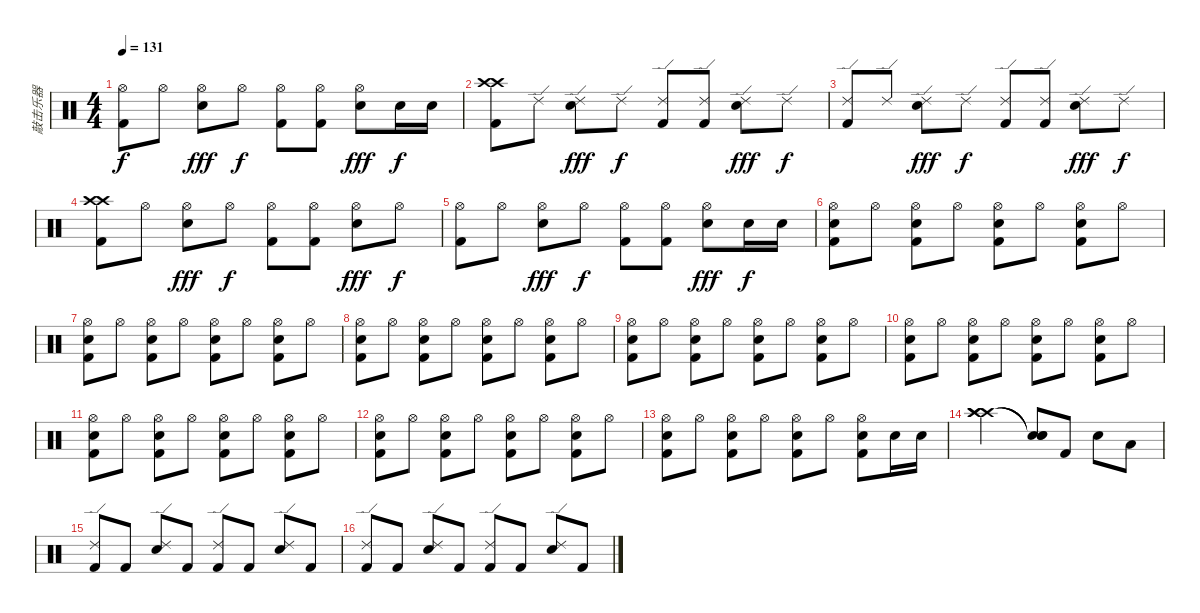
\track ("敲击乐器" "敲击乐器") {instrument percussion}
\staff {score}
\articulation defaults
\ts (4 4)
\tempo 131
\clef neutral
\ks c
("Hi-Hat (open)" "Kick (hit) 2").8{dy f} "Hi-Hat (open)".8 ("Hi-Hat (open)" "Electric Snare (hit)").8{dy fff} "Hi-Hat (open)".8{dy f} ("Hi-Hat (open)" "Kick (hit) 2").8 ("Hi-Hat (open)" "Kick (hit) 2").8 ("Hi-Hat (open)" "Electric Snare (hit)").8{dy fff} "Electric Snare (hit)".16{dy f} "Electric Snare (hit)".16 |
("Crash high (hit)" "Kick (hit) 2" "Crash high (hit)").8 "Ride (edge) 2".8 ("Ride (edge) 2" "Electric Snare (hit)").8{dy fff} "Ride (edge) 2".8{dy f} ("Ride (edge) 2" "Kick (hit) 2").8 ("Ride (edge) 2" "Kick (hit) 2").8 ("Ride (edge) 2" "Electric Snare (hit)").8{dy fff} "Ride (edge) 2".8{dy f} |
("Ride (edge) 2" "Kick (hit) 2").8 "Ride (edge) 2".8 ("Ride (edge) 2" "Electric Snare (hit)").8{dy fff} "Ride (edge) 2".8{dy f} ("Ride (edge) 2" "Kick (hit) 2").8 ("Ride (edge) 2" "Kick (hit) 2").8 ("Ride (edge) 2" "Electric Snare (hit)").8{dy fff} "Ride (edge) 2".8{dy f} |
("Crash high (hit)" "Kick (hit) 2" "Crash high (hit)").8 "Hi-Hat (open)".8 ("Hi-Hat (open)" "Electric Snare (hit)").8{dy fff} "Hi-Hat (open)".8{dy f} ("Hi-Hat (open)" "Kick (hit) 2").8 ("Hi-Hat (open)" "Kick (hit) 2").8 ("Hi-Hat (open)" "Electric Snare (hit)").8{dy fff} "Hi-Hat (open)".8{dy f} |
("Hi-Hat (open)" "Kick (hit) 2").8 "Hi-Hat (open)".8 ("Hi-Hat (open)" "Electric Snare (hit)").8{dy fff} "Hi-Hat (open)".8{dy f} ("Hi-Hat (open)" "Kick (hit) 2").8 ("Hi-Hat (open)" "Kick (hit) 2").8 ("Hi-Hat (open)" "Electric Snare (hit)").8{dy fff} "Electric Snare (hit)".16{dy f} "Electric Snare (hit)".16 |
("Hi-Hat (open)" "Electric Snare (hit)" "Kick (hit) 2").8 "Hi-Hat (open)".8 ("Hi-Hat (open)" "Electric Snare (hit)" "Kick (hit) 2").8 "Hi-Hat (open)".8 ("Hi-Hat (open)" "Electric Snare (hit)" "Kick (hit) 2").8 "Hi-Hat (open)".8 ("Hi-Hat (open)" "Electric Snare (hit)" "Kick (hit) 2").8 "Hi-Hat (open)".8 |
("Hi-Hat (open)" "Electric Snare (hit)" "Kick (hit) 2").8 "Hi-Hat (open)".8 ("Hi-Hat (open)" "Electric Snare (hit)" "Kick (hit) 2").8 "Hi-Hat (open)".8 ("Hi-Hat (open)" "Electric Snare (hit)" "Kick (hit) 2").8 "Hi-Hat (open)".8 ("Hi-Hat (open)" "Electric Snare (hit)" "Kick (hit) 2").8 "Hi-Hat (open)".8 |
("Hi-Hat (open)" "Electric Snare (hit)" "Kick (hit) 2").8 "Hi-Hat (open)".8 ("Hi-Hat (open)" "Electric Snare (hit)" "Kick (hit) 2").8 "Hi-Hat (open)".8 ("Hi-Hat (open)" "Electric Snare (hit)" "Kick (hit) 2").8 "Hi-Hat (open)".8 ("Hi-Hat (open)" "Electric Snare (hit)" "Kick (hit) 2").8 "Hi-Hat (open)".8 |
("Hi-Hat (open)" "Electric Snare (hit)" "Kick (hit) 2").8 "Hi-Hat (open)".8 ("Hi-Hat (open)" "Electric Snare (hit)" "Kick (hit) 2").8 "Hi-Hat (open)".8 ("Hi-Hat (open)" "Electric Snare (hit)" "Kick (hit) 2").8 "Hi-Hat (open)".8 ("Hi-Hat (open)" "Electric Snare (hit)" "Kick (hit) 2").8 "Hi-Hat (open)".8 |
("Hi-Hat (open)" "Electric Snare (hit)" "Kick (hit) 2").8 "Hi-Hat (open)".8 ("Hi-Hat (open)" "Electric Snare (hit)" "Kick (hit) 2").8 "Hi-Hat (open)".8 ("Hi-Hat (open)" "Electric Snare (hit)" "Kick (hit) 2").8 "Hi-Hat (open)".8 ("Hi-Hat (open)" "Electric Snare (hit)" "Kick (hit) 2").8 "Hi-Hat (open)".8 |
("Hi-Hat (open)" "Electric Snare (hit)" "Kick (hit) 2").8 "Hi-Hat (open)".8 ("Hi-Hat (open)" "Electric Snare (hit)" "Kick (hit) 2").8 "Hi-Hat (open)".8 ("Hi-Hat (open)" "Electric Snare (hit)" "Kick (hit) 2").8 "Hi-Hat (open)".8 ("Hi-Hat (open)" "Electric Snare (hit)" "Kick (hit) 2").8 "Hi-Hat (open)".8 |
("Hi-Hat (open)" "Electric Snare (hit)" "Kick (hit) 2").8 "Hi-Hat (open)".8 ("Hi-Hat (open)" "Electric Snare (hit)" "Kick (hit) 2").8 "Hi-Hat (open)".8 ("Hi-Hat (open)" "Electric Snare (hit)" "Kick (hit) 2").8 "Hi-Hat (open)".8 ("Hi-Hat (open)" "Electric Snare (hit)" "Kick (hit) 2").8 "Hi-Hat (open)".8 |
("Hi-Hat (open)" "Electric Snare (hit)" "Kick (hit) 2").8 "Hi-Hat (open)".8 ("Hi-Hat (open)" "Electric Snare (hit)" "Kick (hit) 2").8 "Hi-Hat (open)".8 ("Hi-Hat (open)" "Electric Snare (hit)" "Kick (hit) 2").8 "Hi-Hat (open)".8 ("Hi-Hat (open)" "Electric Snare (hit)" "Kick (hit) 2").8 "Electric Snare (hit)".16 "Electric Snare (hit)".16 |
("Crash high (hit)" "Crash high (hit)" "Crash high (hit)").2 ("Snare (hit)"{t} "Snare (hit)"{t} "Snare (hit)"{t}).8 "Kick (hit) 2".8 "Electric Snare (hit)".8 "Low Tom (hit)".8 |
("Ride (edge) 2" "Kick (hit) 2").8 "Kick (hit) 2".8 ("Ride (edge) 2" "Snare (hit) 2").8 "Kick (hit) 2".8 ("Ride (edge) 2" "Kick (hit) 2").8 "Kick (hit) 2".8 ("Ride (edge) 2" "Snare (hit) 2").8 "Kick (hit) 2".8 |
("Ride (edge) 2" "Kick (hit) 2").8 "Kick (hit) 2".8 ("Ride (edge) 2" "Snare (hit) 2").8 "Kick (hit) 2".8 ("Ride (edge) 2" "Kick (hit) 2").8 "Kick (hit) 2".8 ("Ride (edge) 2" "Snare (hit) 2").8 "Kick (hit) 2".8
